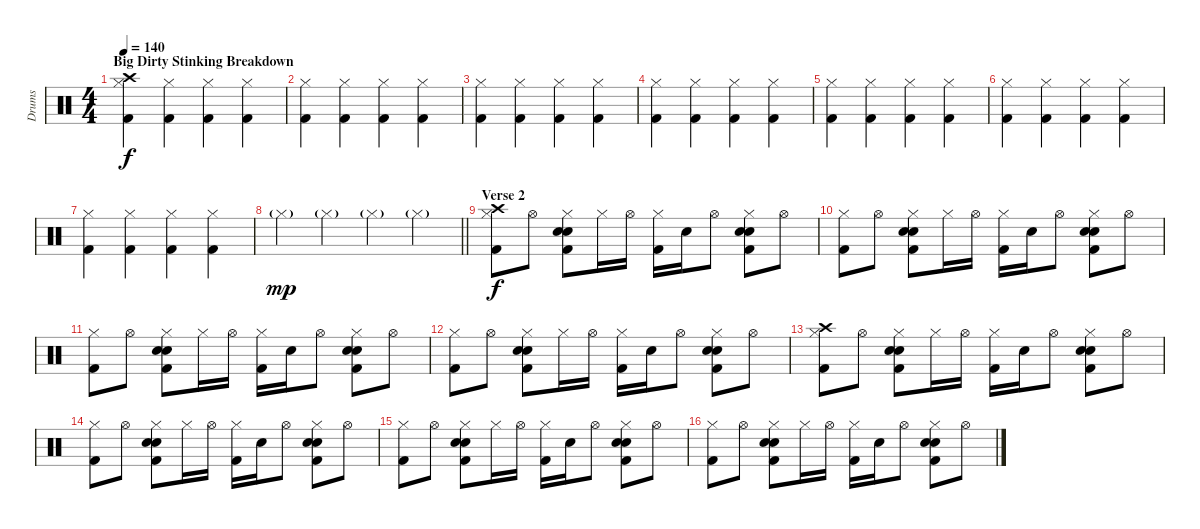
\track ("Drums" "Drums") {instrument percussion}
\staff {score}
\articulation defaults
\ts (4 4)
\section ("" "Big Dirty Stinking Breakdown")
\tempo 140
\clef neutral
\ks c
("Crash high (hit)" "Hi-Hat (closed)" "Kick (hit) 2").4{dy f} ("Hi-Hat (closed)" "Kick (hit) 2").4 ("Hi-Hat (closed)" "Kick (hit) 2").4 ("Hi-Hat (closed)" "Kick (hit) 2").4 |
("Hi-Hat (closed)" "Kick (hit) 2").4 ("Hi-Hat (closed)" "Kick (hit) 2").4 ("Hi-Hat (closed)" "Kick (hit) 2").4 ("Hi-Hat (closed)" "Kick (hit) 2").4 |
("Hi-Hat (closed)" "Kick (hit) 2").4 ("Hi-Hat (closed)" "Kick (hit) 2").4 ("Hi-Hat (closed)" "Kick (hit) 2").4 ("Hi-Hat (closed)" "Kick (hit) 2").4 |
("Hi-Hat (closed)" "Kick (hit) 2").4 ("Hi-Hat (closed)" "Kick (hit) 2").4 ("Hi-Hat (closed)" "Kick (hit) 2").4 ("Hi-Hat (closed)" "Kick (hit) 2").4 |
("Hi-Hat (closed)" "Kick (hit) 2").4 ("Hi-Hat (closed)" "Kick (hit) 2").4 ("Hi-Hat (closed)" "Kick (hit) 2").4 ("Hi-Hat (closed)" "Kick (hit) 2").4 |
("Hi-Hat (closed)" "Kick (hit) 2").4 ("Hi-Hat (closed)" "Kick (hit) 2").4 ("Hi-Hat (closed)" "Kick (hit) 2").4 ("Hi-Hat (closed)" "Kick (hit) 2").4 |
("Hi-Hat (closed)" "Kick (hit) 2").4 ("Hi-Hat (closed)" "Kick (hit) 2").4 ("Hi-Hat (closed)" "Kick (hit) 2").4 ("Hi-Hat (closed)" "Kick (hit) 2").4 |
\barLineRight lightlight "Hi-Hat (closed)"{g}.4{dy mp} "Hi-Hat (closed)"{g}.4 "Hi-Hat (closed)"{g}.4 "Hi-Hat (closed)"{g}.4
|
\section ("" "Verse 2")
("Crash high (hit)" "Hi-Hat (closed)" "Kick (hit) 2").8{dy f} "Hi-Hat (open)".8 ("Hi-Hat (closed)" "Hand Clap (hit)" "Snare (hit) 2" "Kick (hit) 2").8 "Hi-Hat (closed)".16 "Hi-Hat (open)".16 ("Hi-Hat (closed)" "Kick (hit) 2").16 "Hand Clap (hit)".16 "Hi-Hat (open)".8 ("Hi-Hat (closed)" "Hand Clap (hit)" "Snare (hit) 2" "Kick (hit) 2").8 "Hi-Hat (open)".8 |
("Hi-Hat (closed)" "Kick (hit) 2").8 "Hi-Hat (open)".8 ("Hi-Hat (closed)" "Hand Clap (hit)" "Snare (hit) 2" "Kick (hit) 2").8 "Hi-Hat (closed)".16 "Hi-Hat (open)".16 ("Hi-Hat (closed)" "Kick (hit) 2").16 "Hand Clap (hit)".16 "Hi-Hat (open)".8 ("Hi-Hat (closed)" "Hand Clap (hit)" "Snare (hit) 2" "Kick (hit) 2").8 "Hi-Hat (open)".8 |
("Hi-Hat (closed)" "Kick (hit) 2").8 "Hi-Hat (open)".8 ("Hi-Hat (closed)" "Hand Clap (hit)" "Snare (hit) 2" "Kick (hit) 2").8 "Hi-Hat (closed)".16 "Hi-Hat (open)".16 ("Hi-Hat (closed)" "Kick (hit) 2").16 "Hand Clap (hit)".16 "Hi-Hat (open)".8 ("Hi-Hat (closed)" "Hand Clap (hit)" "Snare (hit) 2" "Kick (hit) 2").8 "Hi-Hat (open)".8 |
("Hi-Hat (closed)" "Kick (hit) 2").8 "Hi-Hat (open)".8 ("Hi-Hat (closed)" "Hand Clap (hit)" "Snare (hit) 2" "Kick (hit) 2").8 "Hi-Hat (closed)".16 "Hi-Hat (open)".16 ("Hi-Hat (closed)" "Kick (hit) 2").16 "Hand Clap (hit)".16 "Hi-Hat (open)".8 ("Hi-Hat (closed)" "Hand Clap (hit)" "Snare (hit) 2" "Kick (hit) 2").8 "Hi-Hat (open)".8 |
("Crash high (hit)" "Hi-Hat (closed)" "Kick (hit) 2").8 "Hi-Hat (open)".8 ("Hi-Hat (closed)" "Hand Clap (hit)" "Snare (hit) 2" "Kick (hit) 2").8 "Hi-Hat (closed)".16 "Hi-Hat (open)".16 ("Hi-Hat (closed)" "Kick (hit) 2").16 "Hand Clap (hit)".16 "Hi-Hat (open)".8 ("Hi-Hat (closed)" "Hand Clap (hit)" "Snare (hit) 2" "Kick (hit) 2").8 "Hi-Hat (open)".8 |
("Hi-Hat (closed)" "Kick (hit) 2").8 "Hi-Hat (open)".8 ("Hi-Hat (closed)" "Hand Clap (hit)" "Snare (hit) 2" "Kick (hit) 2").8 "Hi-Hat (closed)".16 "Hi-Hat (open)".16 ("Hi-Hat (closed)" "Kick (hit) 2").16 "Hand Clap (hit)".16 "Hi-Hat (open)".8 ("Hi-Hat (closed)" "Hand Clap (hit)" "Snare (hit) 2" "Kick (hit) 2").8 "Hi-Hat (open)".8 |
("Hi-Hat (closed)" "Kick (hit) 2").8 "Hi-Hat (open)".8 ("Hi-Hat (closed)" "Hand Clap (hit)" "Snare (hit) 2" "Kick (hit) 2").8 "Hi-Hat (closed)".16 "Hi-Hat (open)".16 ("Hi-Hat (closed)" "Kick (hit) 2").16 "Hand Clap (hit)".16 "Hi-Hat (open)".8 ("Hi-Hat (closed)" "Hand Clap (hit)" "Snare (hit) 2" "Kick (hit) 2").8 "Hi-Hat (open)".8 |
("Hi-Hat (closed)" "Kick (hit) 2").8 "Hi-Hat (open)".8 ("Hi-Hat (closed)" "Hand Clap (hit)" "Snare (hit) 2" "Kick (hit) 2").8 "Hi-Hat (closed)".16 "Hi-Hat (open)".16 ("Hi-Hat (closed)" "Kick (hit) 2").16 "Hand Clap (hit)".16 "Hi-Hat (open)".8 ("Hi-Hat (closed)" "Hand Clap (hit)" "Snare (hit) 2" "Kick (hit) 2").8 "Hi-Hat (open)".8
